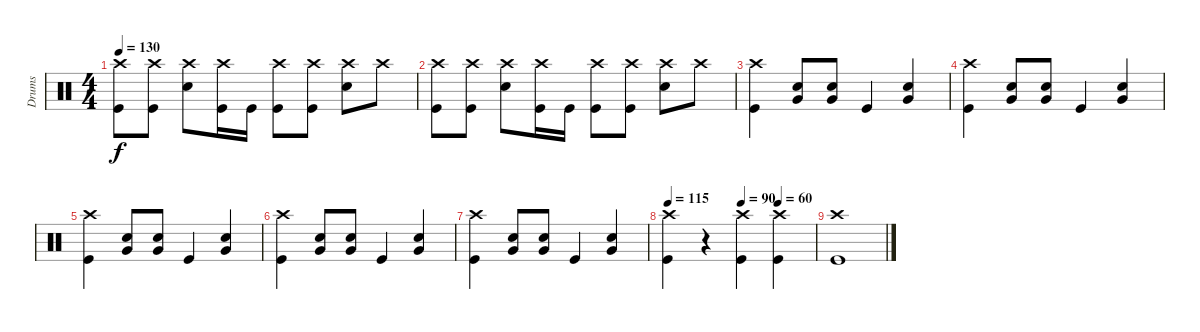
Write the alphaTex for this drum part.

\track ("Drums" "Drums") {instrument percussion}
\staff {score}
\articulation defaults
\ts (4 4)
\tempo 130
\clef neutral
\ks c
("Crash high (hit)" "Kick (hit)").8{dy f} ("Crash high (hit)" "Kick (hit)").8 ("Crash high (hit)" "Snare (hit) 2").8 ("Crash high (hit)" "Kick (hit)").16 "Kick (hit)".16 ("Crash high (hit)" "Kick (hit)").8 ("Crash high (hit)" "Kick (hit)").8 ("Crash high (hit)" "Snare (hit) 2").8 "Crash high (hit)".8 |
("Crash high (hit)" "Kick (hit)").8 ("Crash high (hit)" "Kick (hit)").8 ("Crash high (hit)" "Snare (hit) 2").8 ("Crash high (hit)" "Kick (hit)").16 "Kick (hit)".16 ("Crash high (hit)" "Kick (hit)").8 ("Crash high (hit)" "Kick (hit)").8 ("Crash high (hit)" "Snare (hit) 2").8 "Crash high (hit)".8 |
("Crash high (hit)" "Kick (hit)").4 ("Snare (hit) 2" "Very Low Tom (hit)").8 ("Snare (hit) 2" "Very Low Tom (hit)").8 "Kick (hit)".4 ("Snare (hit) 2" "Very Low Tom (hit)").4 |
("Crash high (hit)" "Kick (hit)").4 ("Snare (hit) 2" "Very Low Tom (hit)").8 ("Snare (hit) 2" "Very Low Tom (hit)").8 "Kick (hit)".4 ("Snare (hit) 2" "Very Low Tom (hit)").4 |
("Crash high (hit)" "Kick (hit)").4 ("Snare (hit) 2" "Very Low Tom (hit)").8 ("Snare (hit) 2" "Very Low Tom (hit)").8 "Kick (hit)".4 ("Snare (hit) 2" "Very Low Tom (hit)").4 |
("Crash high (hit)" "Kick (hit)").4 ("Snare (hit) 2" "Very Low Tom (hit)").8 ("Snare (hit) 2" "Very Low Tom (hit)").8 "Kick (hit)".4 ("Snare (hit) 2" "Very Low Tom (hit)").4 |
("Crash high (hit)" "Kick (hit)").4 ("Snare (hit) 2" "Very Low Tom (hit)").8 ("Snare (hit) 2" "Very Low Tom (hit)").8 "Kick (hit)".4 ("Snare (hit) 2" "Very Low Tom (hit)").4 |
\tempo 115
\tempo (90 0.5)
\tempo (60 0.75)
("Crash high (hit)" "Kick (hit)").4 r.4 ("Crash high (hit)" "Kick (hit)").4 ("Crash high (hit)" "Kick (hit)").4 |
("Crash high (hit)" "Kick (hit)").1
